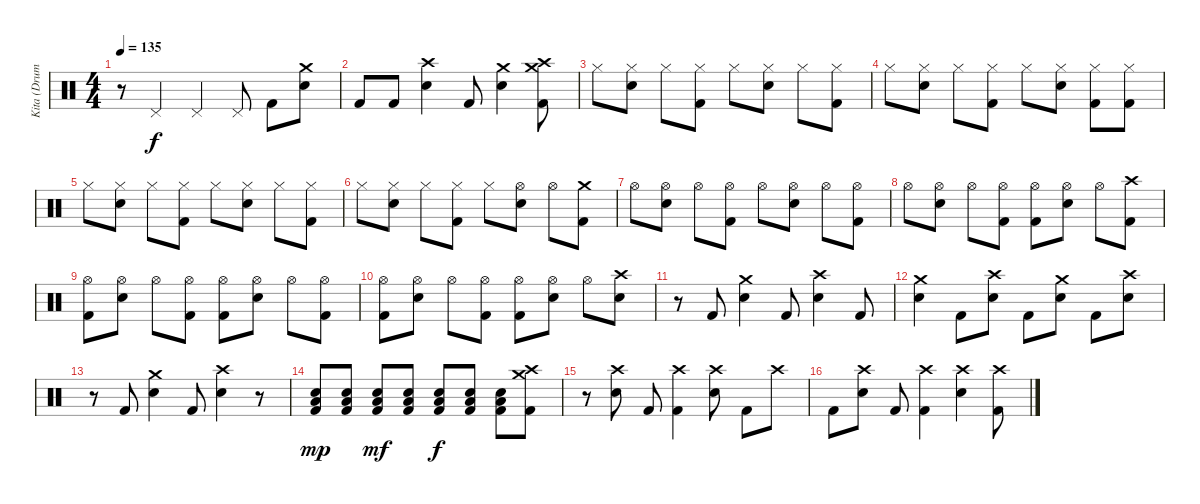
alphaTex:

\track ("Kita (Drums)" "Kita (Drum") {instrument percussion}
\staff {score}
\articulation defaults
\ts (4 4)
\tempo 135
\clef neutral
\ks c
r.8{dy f} "Pedal Hi-Hat (hit)".4 "Pedal Hi-Hat (hit)".4 "Pedal Hi-Hat (hit)".8 "Kick (hit) 2".8 ("Crash medium (hit)" "Electric Snare (hit)").8 |
"Kick (hit) 2".8 "Kick (hit) 2".8 ("Crash high (hit)" "Electric Snare (hit)").4 "Kick (hit) 2".8 ("Crash medium (hit)" "Electric Snare (hit)").4 ("Crash medium (hit)" "Crash high (hit)" "Kick (hit) 2").8 |
"Hi-Hat (closed)".8 ("Hi-Hat (closed)" "Electric Snare (hit)").8 "Hi-Hat (closed)".8 ("Hi-Hat (closed)" "Kick (hit) 2").8 "Hi-Hat (closed)".8 ("Hi-Hat (closed)" "Electric Snare (hit)").8 "Hi-Hat (closed)".8 ("Hi-Hat (closed)" "Kick (hit) 2").8 |
"Hi-Hat (closed)".8 ("Hi-Hat (closed)" "Electric Snare (hit)").8 "Hi-Hat (closed)".8 ("Hi-Hat (closed)" "Kick (hit) 2").8 "Hi-Hat (closed)".8 ("Hi-Hat (closed)" "Electric Snare (hit)").8 ("Hi-Hat (closed)" "Kick (hit) 2").8 ("Hi-Hat (closed)" "Kick (hit) 2").8 |
"Hi-Hat (closed)".8 ("Hi-Hat (closed)" "Electric Snare (hit)").8 "Hi-Hat (closed)".8 ("Hi-Hat (closed)" "Kick (hit) 2").8 "Hi-Hat (closed)".8 ("Hi-Hat (closed)" "Electric Snare (hit)").8 "Hi-Hat (closed)".8 ("Hi-Hat (closed)" "Kick (hit) 2").8 |
"Hi-Hat (closed)".8 ("Hi-Hat (closed)" "Electric Snare (hit)").8 "Hi-Hat (closed)".8 ("Hi-Hat (closed)" "Kick (hit) 2").8 "Hi-Hat (closed)".8 ("Hi-Hat (open)" "Electric Snare (hit)").8 "Hi-Hat (open)".8 ("Crash medium (hit)" "Kick (hit) 2").8 |
"Hi-Hat (open)".8 ("Hi-Hat (open)" "Electric Snare (hit)").8 "Hi-Hat (open)".8 ("Hi-Hat (open)" "Kick (hit) 2").8 "Hi-Hat (open)".8 ("Hi-Hat (open)" "Electric Snare (hit)").8 "Hi-Hat (open)".8 ("Hi-Hat (open)" "Kick (hit) 2").8 |
"Hi-Hat (open)".8 ("Hi-Hat (open)" "Electric Snare (hit)").8 "Hi-Hat (open)".8 ("Hi-Hat (open)" "Kick (hit) 2").8 ("Hi-Hat (open)" "Kick (hit) 2").8 ("Hi-Hat (open)" "Electric Snare (hit)").8 "Hi-Hat (open)".8 ("Crash high (hit)" "Kick (hit) 2").8 |
("Hi-Hat (open)" "Kick (hit) 2").8 ("Hi-Hat (open)" "Electric Snare (hit)").8 "Hi-Hat (open)".8 ("Hi-Hat (open)" "Kick (hit) 2").8 ("Hi-Hat (open)" "Kick (hit) 2").8 ("Hi-Hat (open)" "Electric Snare (hit)").8 "Hi-Hat (open)".8 ("Hi-Hat (open)" "Kick (hit) 2").8 |
("Hi-Hat (open)" "Kick (hit) 2").8 ("Hi-Hat (open)" "Electric Snare (hit)").8 "Hi-Hat (open)".8 ("Hi-Hat (open)" "Kick (hit) 2").8 ("Hi-Hat (open)" "Kick (hit) 2").8 ("Hi-Hat (open)" "Electric Snare (hit)").8 "Hi-Hat (open)".8 ("Crash high (hit)" "Electric Snare (hit)").8 |
r.8 "Kick (hit) 2".8 ("Crash medium (hit)" "Electric Snare (hit)").4 "Kick (hit) 2".8 ("Crash high (hit)" "Electric Snare (hit)").4 "Kick (hit) 2".8 |
("Crash medium (hit)" "Electric Snare (hit)").4 "Kick (hit) 2".8 ("Crash high (hit)" "Electric Snare (hit)").8 "Kick (hit) 2".8 ("Crash medium (hit)" "Electric Snare (hit)").8 "Kick (hit) 2".8 ("Crash high (hit)" "Electric Snare (hit)").8 |
r.8 "Kick (hit) 2".8 ("Crash medium (hit)" "Electric Snare (hit)").4 "Kick (hit) 2".8 ("Crash high (hit)" "Electric Snare (hit)").4 r.8 |
("Low Floor Tom (hit)" "Electric Snare (hit)" "Kick (hit) 2").8{dy mp} ("Low Floor Tom (hit)" "Electric Snare (hit)" "Kick (hit) 2").8 ("Low Floor Tom (hit)" "Electric Snare (hit)" "Kick (hit) 2").8{dy mf} ("Low Floor Tom (hit)" "Electric Snare (hit)" "Kick (hit) 2").8 ("Low Floor Tom (hit)" "Electric Snare (hit)" "Kick (hit) 2").8{dy f} ("Low Floor Tom (hit)" "Electric Snare (hit)" "Kick (hit) 2").8 ("Low Floor Tom (hit)" "Electric Snare (hit)" "Kick (hit) 2").8 ("Crash medium (hit)" "Crash high (hit)" "Kick (hit) 2").8 |
r.8 ("Crash high (hit)" "Electric Snare (hit)").8 "Kick (hit) 2".8 ("Crash high (hit)" "Kick (hit) 2").4 ("Crash high (hit)" "Electric Snare (hit)").8 "Kick (hit) 2".8 "Crash high (hit)".8 |
"Kick (hit) 2".8 ("Crash high (hit)" "Electric Snare (hit)").8 "Kick (hit) 2".8 ("Crash high (hit)" "Kick (hit) 2").4 ("Crash high (hit)" "Electric Snare (hit)").4 ("Crash high (hit)" "Kick (hit) 2").8
